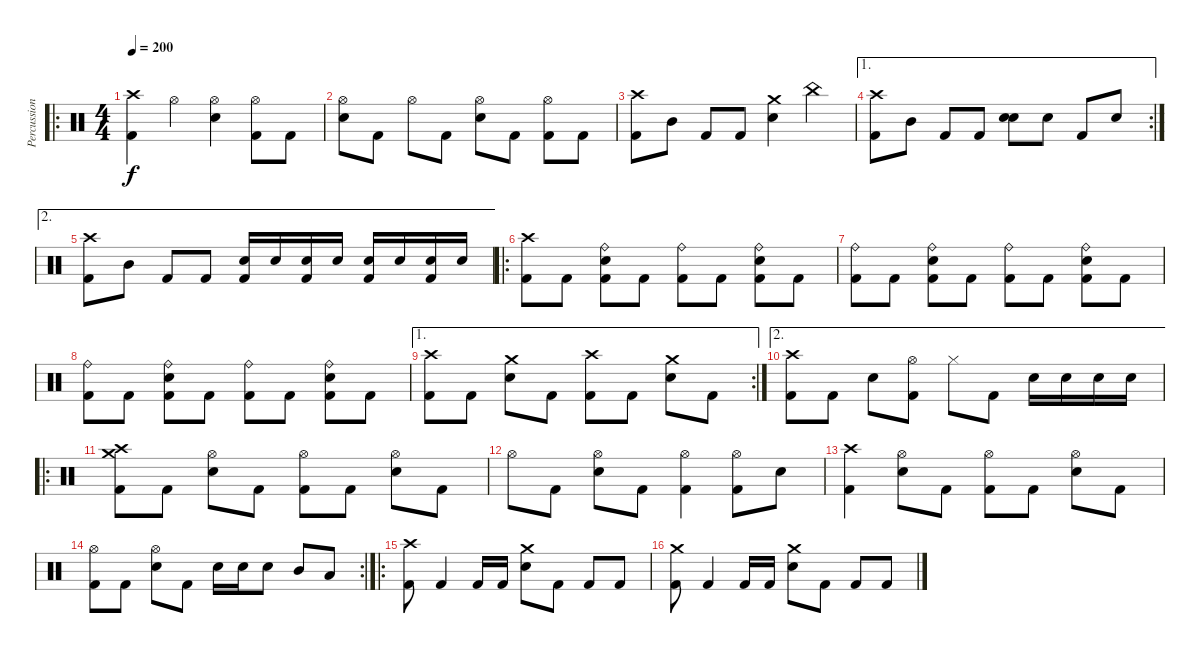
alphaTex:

\track ("Percussions" "Percussion") {instrument percussion}
\staff {score}
\articulation defaults
\ro
\ts (4 4)
\tempo 200
\clef neutral
\ks c
("Crash high (hit)" "Kick (hit) 2").4{dy f} "Hi-Hat (open)".4 ("Hi-Hat (open)" "Snare (hit) 2").4 ("Hi-Hat (open)" "Kick (hit) 2").8 "Kick (hit) 2".8 |
("Hi-Hat (open)" "Snare (hit) 2").8 "Kick (hit) 2".8 "Hi-Hat (open)".8 "Kick (hit) 2".8 ("Hi-Hat (open)" "Snare (hit) 2").8 "Kick (hit) 2".8 ("Hi-Hat (open)" "Kick (hit) 2").8 "Kick (hit) 2".8 |
("Crash high (hit)" "Kick (hit) 2").8 "Mid Tom (hit)".8 "Kick (hit) 2".8 "Kick (hit) 2".8 ("Crash medium (hit)" "Snare (hit) 2").4 "China (hit)".4 |
\ae 1
\rc 2
("Crash high (hit)" "Kick (hit) 2").8 "Mid Tom (hit)".8 "Kick (hit) 2".8 "Kick (hit) 2".8 ("Snare (hit) 2" "Snare (hit) 2").8{bd 120} "Snare (hit) 2".8 "Kick (hit) 2".8 "Snare (hit) 2".8 |
\ae 2
("Crash high (hit)" "Kick (hit) 2").8 "Mid Tom (hit)".8 "Kick (hit) 2".8 "Kick (hit) 2".8 ("Snare (hit) 2" "Kick (hit) 2").16 "Snare (hit) 2".16 ("Snare (hit) 2" "Kick (hit) 2").16 "Snare (hit) 2".16 ("Snare (hit) 2" "Kick (hit) 2").16 "Snare (hit) 2".16 ("Snare (hit) 2" "Kick (hit) 2").16 "Snare (hit) 2".16 |
\ro
("Crash high (hit)" "Kick (hit) 2").8 "Kick (hit) 2".8 ("Ride (bell)" "Snare (hit) 2" "Kick (hit) 2").8 "Kick (hit) 2".8 ("Ride (bell)" "Kick (hit) 2").8 "Kick (hit) 2".8 ("Ride (bell)" "Snare (hit) 2" "Kick (hit) 2").8 "Kick (hit) 2".8 |
("Ride (bell)" "Kick (hit) 2").8 "Kick (hit) 2".8 ("Ride (bell)" "Snare (hit) 2" "Kick (hit) 2").8 "Kick (hit) 2".8 ("Ride (bell)" "Kick (hit) 2").8 "Kick (hit) 2".8 ("Ride (bell)" "Snare (hit) 2" "Kick (hit) 2").8 "Kick (hit) 2".8 |
("Ride (bell)" "Kick (hit) 2").8 "Kick (hit) 2".8 ("Ride (bell)" "Snare (hit) 2" "Kick (hit) 2").8 "Kick (hit) 2".8 ("Ride (bell)" "Kick (hit) 2").8 "Kick (hit) 2".8 ("Ride (bell)" "Snare (hit) 2" "Kick (hit) 2").8 "Kick (hit) 2".8 |
\ae 1
\rc 2
("Crash high (hit)" "Kick (hit) 2").8 "Kick (hit) 2".8 ("Crash medium (hit)" "Snare (hit) 2").8 "Kick (hit) 2".8 ("Crash high (hit)" "Kick (hit) 2").8 "Kick (hit) 2".8 ("Crash medium (hit)" "Snare (hit) 2").8 "Kick (hit) 2".8 |
\ae 2
("Crash high (hit)" "Kick (hit) 2").8 "Kick (hit) 2".8 "Snare (hit) 2".8 ("Hi-Hat (open)" "Kick (hit) 2").8 "Hi-Hat (closed)".8 "Kick (hit) 2".8 "Snare (hit) 2".16 "Snare (hit) 2".16 "Snare (hit) 2".16 "Snare (hit) 2".16 |
\ro
("Crash high (hit)" "Crash medium (hit)" "Kick (hit) 2").8 "Kick (hit) 2".8 ("Hi-Hat (open)" "Snare (hit) 2").8 "Kick (hit) 2".8 ("Hi-Hat (open)" "Kick (hit) 2").8 "Kick (hit) 2".8 ("Hi-Hat (open)" "Snare (hit) 2").8 "Kick (hit) 2".8 |
"Hi-Hat (open)".8 "Kick (hit) 2".8 ("Hi-Hat (open)" "Snare (hit) 2").8 "Kick (hit) 2".8 ("Hi-Hat (open)" "Kick (hit) 2").4 ("Hi-Hat (open)" "Kick (hit) 2").8 "Snare (hit) 2".8 |
("Crash high (hit)" "Kick (hit) 2").4 ("Hi-Hat (open)" "Snare (hit) 2").8 "Kick (hit) 2".8 ("Hi-Hat (open)" "Kick (hit) 2").8 "Kick (hit) 2".8 ("Hi-Hat (open)" "Snare (hit) 2").8 "Kick (hit) 2".8 |
\rc 2
("Hi-Hat (open)" "Kick (hit) 2").8 "Kick (hit) 2".8 ("Hi-Hat (open)" "Snare (hit) 2").8 "Kick (hit) 2".8 "Snare (hit) 2".16 "Snare (hit) 2".16 "Snare (hit) 2".8 "Mid Tom (hit)".8 "Low Tom (hit)".8 |
\ro
("Crash high (hit)" "Kick (hit) 2").8 "Kick (hit) 2".4 "Kick (hit) 2".16 "Kick (hit) 2".16 ("Crash medium (hit)" "Snare (hit) 2").8 "Kick (hit) 2".8 "Kick (hit) 2".8 "Kick (hit) 2".8 |
("Crash medium (hit)" "Kick (hit) 2").8 "Kick (hit) 2".4 "Kick (hit) 2".16 "Kick (hit) 2".16 ("Crash medium (hit)" "Snare (hit) 2").8 "Kick (hit) 2".8 "Kick (hit) 2".8 "Kick (hit) 2".8
